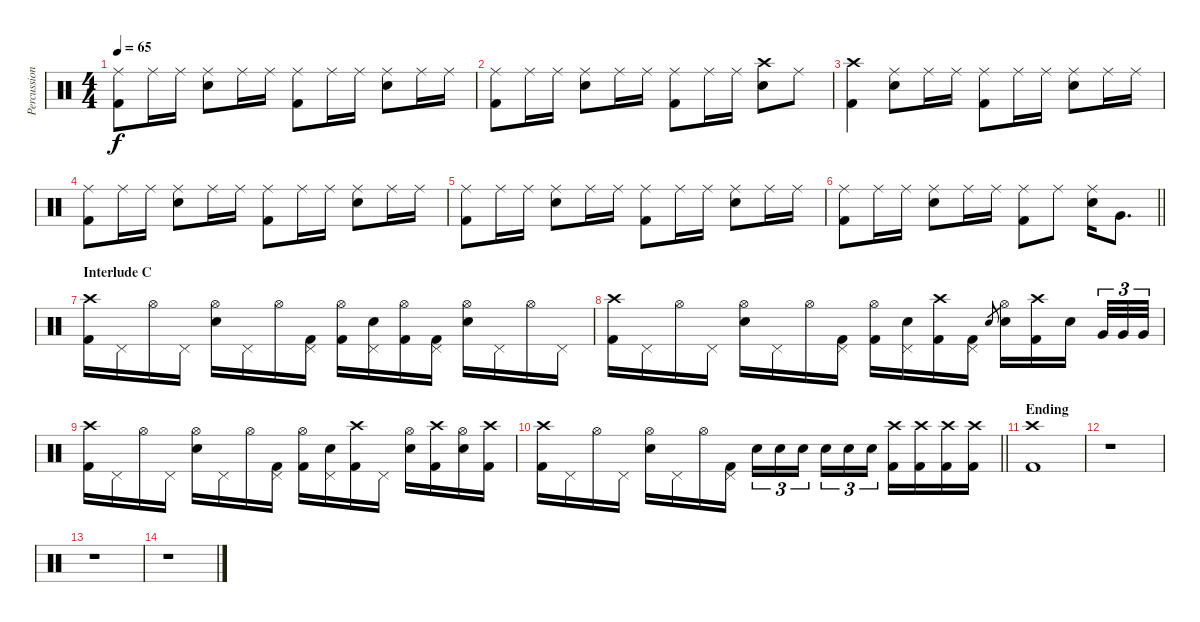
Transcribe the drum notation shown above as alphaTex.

\track ("Percussion" "Percussion") {instrument percussion}
\staff {score}
\articulation defaults
\ts (4 4)
\tempo 65
\clef neutral
\ks c
("Ride (middle)" "Kick (hit) 2").8{dy f} "Ride (middle)".16 "Ride (middle)".16 ("Ride (middle)" "Snare (hit) 2").8 "Ride (middle)".16 "Ride (middle)".16 ("Ride (middle)" "Kick (hit) 2").8 "Ride (middle)".16 "Ride (middle)".16 ("Ride (middle)" "Snare (hit) 2").8 "Ride (middle)".16 "Ride (middle)".16 |
("Ride (middle)" "Kick (hit) 2").8 "Ride (middle)".16 "Ride (middle)".16 ("Ride (middle)" "Snare (hit) 2").8 "Ride (middle)".16 "Ride (middle)".16 ("Ride (middle)" "Kick (hit) 2").8 "Ride (middle)".16 "Ride (middle)".16 ("Crash high (hit)" "Snare (hit) 2").8 "Ride (middle)".8 |
("Crash high (hit)" "Kick (hit) 2").4 ("Ride (middle)" "Snare (hit) 2").8 "Ride (middle)".16 "Ride (middle)".16 ("Ride (middle)" "Kick (hit) 2").8 "Ride (middle)".16 "Ride (middle)".16 ("Ride (middle)" "Snare (hit) 2").8 "Ride (middle)".16 "Ride (middle)".16 |
("Ride (middle)" "Kick (hit) 2").8 "Ride (middle)".16 "Ride (middle)".16 ("Ride (middle)" "Snare (hit) 2").8 "Ride (middle)".16 "Ride (middle)".16 ("Ride (middle)" "Kick (hit) 2").8 "Ride (middle)".16 "Ride (middle)".16 ("Ride (middle)" "Snare (hit) 2").8 "Ride (middle)".16 "Ride (middle)".16 |
("Ride (middle)" "Kick (hit) 2").8 "Ride (middle)".16 "Ride (middle)".16 ("Ride (middle)" "Snare (hit) 2").8 "Ride (middle)".16 "Ride (middle)".16 ("Ride (middle)" "Kick (hit) 2").8 "Ride (middle)".16 "Ride (middle)".16 ("Ride (middle)" "Snare (hit) 2").8 "Ride (middle)".16 "Ride (middle)".16 |
\barLineRight lightlight
("Ride (middle)" "Kick (hit) 2").8 "Ride (middle)".16 "Ride (middle)".16 ("Ride (middle)" "Snare (hit) 2").8 "Ride (middle)".16 "Ride (middle)".16 ("Ride (middle)" "Kick (hit) 2").8 "Ride (middle)".8 ("Ride (middle)" "Snare (hit) 2").16 "Very Low Tom (hit)".8{d} |
\section ("" "Interlude C")
("Crash high (hit)" "Kick (hit) 2").16 "Pedal Hi-Hat (hit)".16 "Hi-Hat (open)".16 "Pedal Hi-Hat (hit)".16 ("Hi-Hat (open)" "Snare (hit) 2").16 "Pedal Hi-Hat (hit)".16 "Hi-Hat (open)".16 ("Pedal Hi-Hat (hit)" "Kick (hit) 2").16 ("Hi-Hat (open)" "Kick (hit) 2").16 ("Pedal Hi-Hat (hit)" "Snare (hit) 2").16 ("Hi-Hat (open)" "Kick (hit) 2").16 ("Pedal Hi-Hat (hit)" "Kick (hit) 2").16 ("Hi-Hat (open)" "Snare (hit) 2").16 "Pedal Hi-Hat (hit)".16 "Hi-Hat (open)".16 "Pedal Hi-Hat (hit)".16 |
("Crash high (hit)" "Kick (hit) 2").16 "Pedal Hi-Hat (hit)".16 "Hi-Hat (open)".16 "Pedal Hi-Hat (hit)".16 ("Hi-Hat (open)" "Snare (hit) 2").16 "Pedal Hi-Hat (hit)".16 "Hi-Hat (open)".16 ("Pedal Hi-Hat (hit)" "Kick (hit) 2").16 ("Hi-Hat (open)" "Kick (hit) 2").16 ("Pedal Hi-Hat (hit)" "Snare (hit) 2").16 ("Crash high (hit)" "Kick (hit) 2").16 ("Pedal Hi-Hat (hit)" "Kick (hit) 2").16 "Snare (hit) 2".8{gr} ("Hi-Hat (open)" "Snare (hit) 2").16 ("Crash high (hit)" "Kick (hit) 2").16 "Snare (hit) 2".16 "Very Low Tom (hit)".32{tu (3 2)} "Very Low Tom (hit)".32{tu (3 2)} "Very Low Tom (hit)".32{tu (3 2)} |
("Crash high (hit)" "Kick (hit) 2").16 "Pedal Hi-Hat (hit)".16 "Hi-Hat (open)".16 "Pedal Hi-Hat (hit)".16 ("Hi-Hat (open)" "Snare (hit) 2").16 "Pedal Hi-Hat (hit)".16 "Hi-Hat (open)".16 ("Pedal Hi-Hat (hit)" "Kick (hit) 2").16 ("Hi-Hat (open)" "Kick (hit) 2").16 ("Pedal Hi-Hat (hit)" "Snare (hit) 2").16 ("Crash high (hit)" "Kick (hit) 2").16 "Pedal Hi-Hat (hit)".16 ("Hi-Hat (open)" "Snare (hit) 2").16 ("Crash high (hit)" "Kick (hit) 2").16 ("Hi-Hat (open)" "Snare (hit) 2").16 ("Crash high (hit)" "Kick (hit) 2").16 |
\barLineRight lightlight
("Crash high (hit)" "Kick (hit) 2").16 "Pedal Hi-Hat (hit)".16 "Hi-Hat (open)".16 "Pedal Hi-Hat (hit)".16 ("Hi-Hat (open)" "Snare (hit) 2").16 "Pedal Hi-Hat (hit)".16 "Hi-Hat (open)".16 ("Pedal Hi-Hat (hit)" "Kick (hit) 2").16 "Snare (hit) 2".16{tu (3 2)} "Snare (hit) 2".16{tu (3 2)} "Snare (hit) 2".16{tu (3 2)} "Snare (hit) 2".16{tu (3 2)} "Snare (hit) 2".16{tu (3 2)} "Snare (hit) 2".16{tu (3 2)} ("Crash high (hit)" "Kick (hit) 2").16 ("Crash high (hit)" "Kick (hit) 2").16 ("Crash high (hit)" "Kick (hit) 2").16 ("Crash high (hit)" "Kick (hit) 2").16 |
\section ("" "Ending")
("Crash high (hit)" "Kick (hit) 2").1 |
r.1 |
r.1 |
r.1
